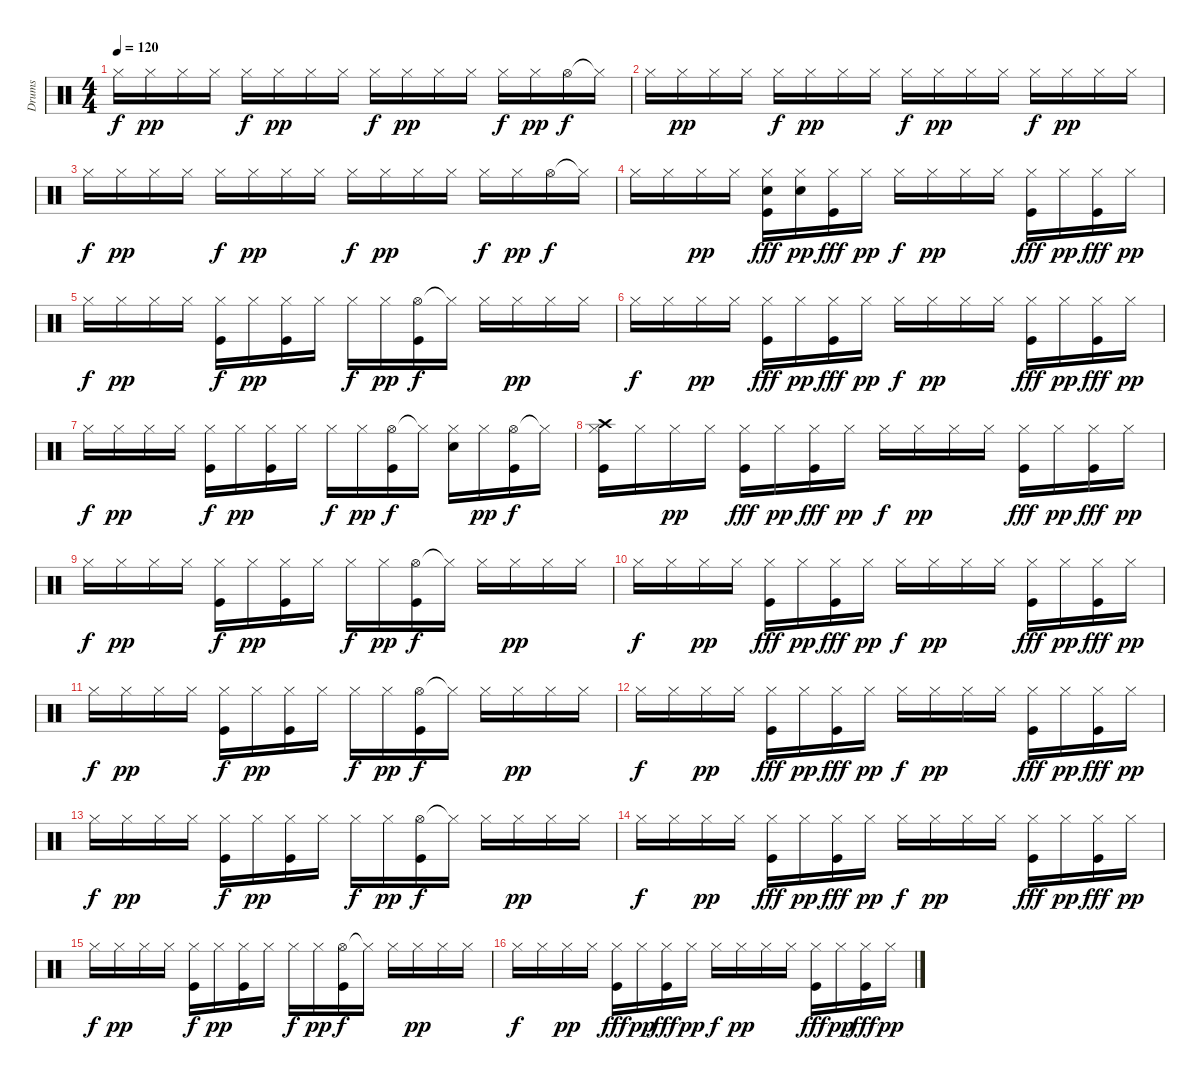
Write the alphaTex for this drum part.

\track ("Drums" "Drums") {instrument percussion}
\staff {score}
\articulation defaults
\ts (4 4)
\tempo 120
\clef neutral
\ks c "Hi-Hat (closed)".16{dy f} "Hi-Hat (closed)".16{dy pp} "Hi-Hat (closed)".16 "Hi-Hat (closed)".16 "Hi-Hat (closed)".16{dy f} "Hi-Hat (closed)".16{dy pp} "Hi-Hat (closed)".16 "Hi-Hat (closed)".16 "Hi-Hat (closed)".16{dy f} "Hi-Hat (closed)".16{dy pp} "Hi-Hat (closed)".16 "Hi-Hat (closed)".16 "Hi-Hat (closed)".16{dy f} "Hi-Hat (closed)".16{dy pp} "Hi-Hat (open)".16{dy f} "Hi-Hat (closed)"{t}.16
|
"Hi-Hat (closed)".16 "Hi-Hat (closed)".16{dy pp} "Hi-Hat (closed)".16 "Hi-Hat (closed)".16 "Hi-Hat (closed)".16{dy f} "Hi-Hat (closed)".16{dy pp} "Hi-Hat (closed)".16 "Hi-Hat (closed)".16 "Hi-Hat (closed)".16{dy f} "Hi-Hat (closed)".16{dy pp} "Hi-Hat (closed)".16 "Hi-Hat (closed)".16 "Hi-Hat (closed)".16{dy f} "Hi-Hat (closed)".16{dy pp} "Hi-Hat (closed)".16 "Hi-Hat (closed)".16 |
"Hi-Hat (closed)".16{dy f} "Hi-Hat (closed)".16{dy pp} "Hi-Hat (closed)".16 "Hi-Hat (closed)".16 "Hi-Hat (closed)".16{dy f} "Hi-Hat (closed)".16{dy pp} "Hi-Hat (closed)".16 "Hi-Hat (closed)".16 "Hi-Hat (closed)".16{dy f} "Hi-Hat (closed)".16{dy pp} "Hi-Hat (closed)".16 "Hi-Hat (closed)".16 "Hi-Hat (closed)".16{dy f} "Hi-Hat (closed)".16{dy pp} "Hi-Hat (open)".16{dy f} "Hi-Hat (closed)"{t}.16 |
"Hi-Hat (closed)".16 "Hi-Hat (closed)".16 "Hi-Hat (closed)".16{dy pp} "Hi-Hat (closed)".16 ("Hi-Hat (closed)" "Electric Snare (hit)" "Kick (hit)").16{dy fff} ("Hi-Hat (closed)" "Electric Snare (hit)").16{dy pp} ("Hi-Hat (closed)" "Kick (hit)").16{dy fff} "Hi-Hat (closed)".16{dy pp} "Hi-Hat (closed)".16{dy f} "Hi-Hat (closed)".16{dy pp} "Hi-Hat (closed)".16 "Hi-Hat (closed)".16 ("Hi-Hat (closed)" "Kick (hit)").16{dy fff} "Hi-Hat (closed)".16{dy pp} ("Hi-Hat (closed)" "Kick (hit)").16{dy fff} "Hi-Hat (closed)".16{dy pp} |
"Hi-Hat (closed)".16{dy f} "Hi-Hat (closed)".16{dy pp} "Hi-Hat (closed)".16 "Hi-Hat (closed)".16 ("Hi-Hat (closed)" "Kick (hit)").16{dy f} "Hi-Hat (closed)".16{dy pp} ("Hi-Hat (closed)" "Kick (hit)").16 "Hi-Hat (closed)".16 "Hi-Hat (closed)".16{dy f} "Hi-Hat (closed)".16{dy pp} ("Hi-Hat (open)" "Kick (hit)").16{dy f} "Hi-Hat (closed)"{t}.16 "Hi-Hat (closed)".16 "Hi-Hat (closed)".16{dy pp} "Hi-Hat (closed)".16 "Hi-Hat (closed)".16 |
"Hi-Hat (closed)".16{dy f} "Hi-Hat (closed)".16 "Hi-Hat (closed)".16{dy pp} "Hi-Hat (closed)".16 ("Hi-Hat (closed)" "Kick (hit)").16{dy fff} "Hi-Hat (closed)".16{dy pp} ("Hi-Hat (closed)" "Kick (hit)").16{dy fff} "Hi-Hat (closed)".16{dy pp} "Hi-Hat (closed)".16{dy f} "Hi-Hat (closed)".16{dy pp} "Hi-Hat (closed)".16 "Hi-Hat (closed)".16 ("Hi-Hat (closed)" "Kick (hit)").16{dy fff} "Hi-Hat (closed)".16{dy pp} ("Hi-Hat (closed)" "Kick (hit)").16{dy fff} "Hi-Hat (closed)".16{dy pp} |
"Hi-Hat (closed)".16{dy f} "Hi-Hat (closed)".16{dy pp} "Hi-Hat (closed)".16 "Hi-Hat (closed)".16 ("Hi-Hat (closed)" "Kick (hit)").16{dy f} "Hi-Hat (closed)".16{dy pp} ("Hi-Hat (closed)" "Kick (hit)").16 "Hi-Hat (closed)".16 "Hi-Hat (closed)".16{dy f} "Hi-Hat (closed)".16{dy pp} ("Hi-Hat (open)" "Kick (hit)").16{dy f} "Hi-Hat (closed)"{t}.16 ("Hi-Hat (closed)" "Electric Snare (hit)").16 "Hi-Hat (closed)".16{dy pp} ("Hi-Hat (open)" "Kick (hit)").16{dy f} "Hi-Hat (closed)"{t}.16 |
("Hi-Hat (closed)" "Crash high (hit)" "Kick (hit)").16 "Hi-Hat (closed)".16 "Hi-Hat (closed)".16{dy pp} "Hi-Hat (closed)".16 ("Hi-Hat (closed)" "Kick (hit)").16{dy fff} "Hi-Hat (closed)".16{dy pp} ("Hi-Hat (closed)" "Kick (hit)").16{dy fff} "Hi-Hat (closed)".16{dy pp} "Hi-Hat (closed)".16{dy f} "Hi-Hat (closed)".16{dy pp} "Hi-Hat (closed)".16 "Hi-Hat (closed)".16 ("Hi-Hat (closed)" "Kick (hit)").16{dy fff} "Hi-Hat (closed)".16{dy pp} ("Hi-Hat (closed)" "Kick (hit)").16{dy fff} "Hi-Hat (closed)".16{dy pp} |
"Hi-Hat (closed)".16{dy f} "Hi-Hat (closed)".16{dy pp} "Hi-Hat (closed)".16 "Hi-Hat (closed)".16 ("Hi-Hat (closed)" "Kick (hit)").16{dy f} "Hi-Hat (closed)".16{dy pp} ("Hi-Hat (closed)" "Kick (hit)").16 "Hi-Hat (closed)".16 "Hi-Hat (closed)".16{dy f} "Hi-Hat (closed)".16{dy pp} ("Hi-Hat (open)" "Kick (hit)").16{dy f} "Hi-Hat (closed)"{t}.16 "Hi-Hat (closed)".16 "Hi-Hat (closed)".16{dy pp} "Hi-Hat (closed)".16 "Hi-Hat (closed)".16 |
"Hi-Hat (closed)".16{dy f} "Hi-Hat (closed)".16 "Hi-Hat (closed)".16{dy pp} "Hi-Hat (closed)".16 ("Hi-Hat (closed)" "Kick (hit)").16{dy fff} "Hi-Hat (closed)".16{dy pp} ("Hi-Hat (closed)" "Kick (hit)").16{dy fff} "Hi-Hat (closed)".16{dy pp} "Hi-Hat (closed)".16{dy f} "Hi-Hat (closed)".16{dy pp} "Hi-Hat (closed)".16 "Hi-Hat (closed)".16 ("Hi-Hat (closed)" "Kick (hit)").16{dy fff} "Hi-Hat (closed)".16{dy pp} ("Hi-Hat (closed)" "Kick (hit)").16{dy fff} "Hi-Hat (closed)".16{dy pp} |
"Hi-Hat (closed)".16{dy f} "Hi-Hat (closed)".16{dy pp} "Hi-Hat (closed)".16 "Hi-Hat (closed)".16 ("Hi-Hat (closed)" "Kick (hit)").16{dy f} "Hi-Hat (closed)".16{dy pp} ("Hi-Hat (closed)" "Kick (hit)").16 "Hi-Hat (closed)".16 "Hi-Hat (closed)".16{dy f} "Hi-Hat (closed)".16{dy pp} ("Hi-Hat (open)" "Kick (hit)").16{dy f} "Hi-Hat (closed)"{t}.16 "Hi-Hat (closed)".16 "Hi-Hat (closed)".16{dy pp} "Hi-Hat (closed)".16 "Hi-Hat (closed)".16 |
"Hi-Hat (closed)".16{dy f} "Hi-Hat (closed)".16 "Hi-Hat (closed)".16{dy pp} "Hi-Hat (closed)".16 ("Hi-Hat (closed)" "Kick (hit)").16{dy fff} "Hi-Hat (closed)".16{dy pp} ("Hi-Hat (closed)" "Kick (hit)").16{dy fff} "Hi-Hat (closed)".16{dy pp} "Hi-Hat (closed)".16{dy f} "Hi-Hat (closed)".16{dy pp} "Hi-Hat (closed)".16 "Hi-Hat (closed)".16 ("Hi-Hat (closed)" "Kick (hit)").16{dy fff} "Hi-Hat (closed)".16{dy pp} ("Hi-Hat (closed)" "Kick (hit)").16{dy fff} "Hi-Hat (closed)".16{dy pp} |
"Hi-Hat (closed)".16{dy f} "Hi-Hat (closed)".16{dy pp} "Hi-Hat (closed)".16 "Hi-Hat (closed)".16 ("Hi-Hat (closed)" "Kick (hit)").16{dy f} "Hi-Hat (closed)".16{dy pp} ("Hi-Hat (closed)" "Kick (hit)").16 "Hi-Hat (closed)".16 "Hi-Hat (closed)".16{dy f} "Hi-Hat (closed)".16{dy pp} ("Hi-Hat (open)" "Kick (hit)").16{dy f} "Hi-Hat (closed)"{t}.16 "Hi-Hat (closed)".16 "Hi-Hat (closed)".16{dy pp} "Hi-Hat (closed)".16 "Hi-Hat (closed)".16 |
"Hi-Hat (closed)".16{dy f} "Hi-Hat (closed)".16 "Hi-Hat (closed)".16{dy pp} "Hi-Hat (closed)".16 ("Hi-Hat (closed)" "Kick (hit)").16{dy fff} "Hi-Hat (closed)".16{dy pp} ("Hi-Hat (closed)" "Kick (hit)").16{dy fff} "Hi-Hat (closed)".16{dy pp} "Hi-Hat (closed)".16{dy f} "Hi-Hat (closed)".16{dy pp} "Hi-Hat (closed)".16 "Hi-Hat (closed)".16 ("Hi-Hat (closed)" "Kick (hit)").16{dy fff} "Hi-Hat (closed)".16{dy pp} ("Hi-Hat (closed)" "Kick (hit)").16{dy fff} "Hi-Hat (closed)".16{dy pp} |
"Hi-Hat (closed)".16{dy f} "Hi-Hat (closed)".16{dy pp} "Hi-Hat (closed)".16 "Hi-Hat (closed)".16 ("Hi-Hat (closed)" "Kick (hit)").16{dy f} "Hi-Hat (closed)".16{dy pp} ("Hi-Hat (closed)" "Kick (hit)").16 "Hi-Hat (closed)".16 "Hi-Hat (closed)".16{dy f} "Hi-Hat (closed)".16{dy pp} ("Hi-Hat (open)" "Kick (hit)").16{dy f} "Hi-Hat (closed)"{t}.16 "Hi-Hat (closed)".16 "Hi-Hat (closed)".16{dy pp} "Hi-Hat (closed)".16 "Hi-Hat (closed)".16 |
"Hi-Hat (closed)".16{dy f} "Hi-Hat (closed)".16 "Hi-Hat (closed)".16{dy pp} "Hi-Hat (closed)".16 ("Hi-Hat (closed)" "Kick (hit)").16{dy fff} "Hi-Hat (closed)".16{dy pp} ("Hi-Hat (closed)" "Kick (hit)").16{dy fff} "Hi-Hat (closed)".16{dy pp} "Hi-Hat (closed)".16{dy f} "Hi-Hat (closed)".16{dy pp} "Hi-Hat (closed)".16 "Hi-Hat (closed)".16 ("Hi-Hat (closed)" "Kick (hit)").16{dy fff} "Hi-Hat (closed)".16{dy pp} ("Hi-Hat (closed)" "Kick (hit)").16{dy fff} "Hi-Hat (closed)".16{dy pp}
